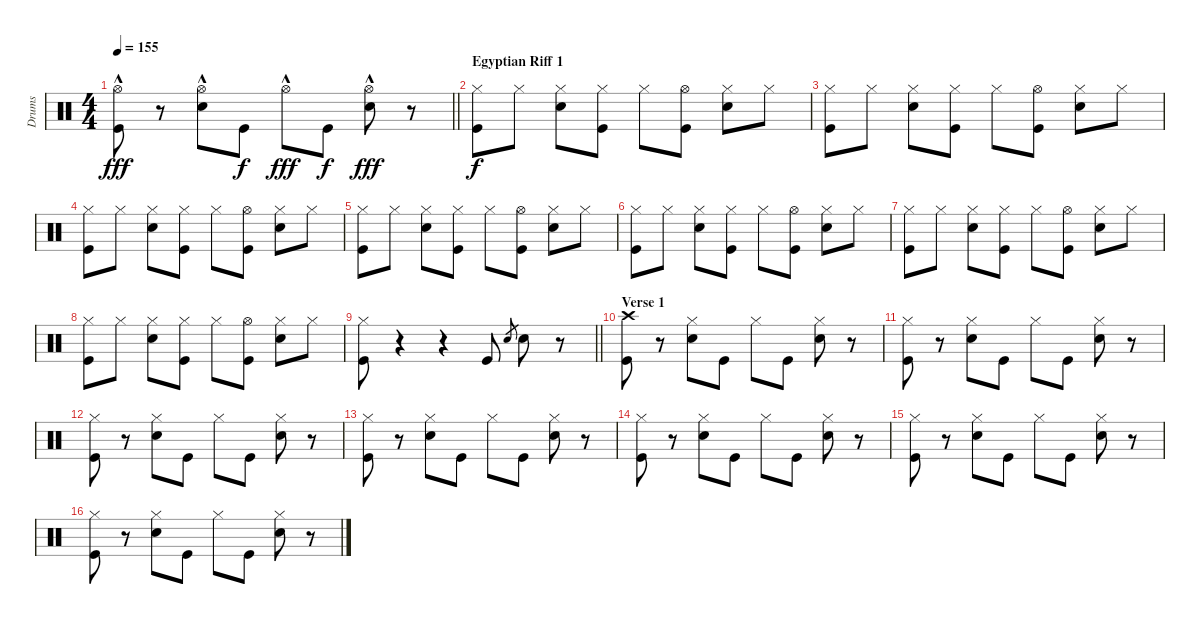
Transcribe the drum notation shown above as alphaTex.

\track ("Drums" "Drums") {instrument percussion}
\staff {score}
\articulation defaults
\ts (4 4)
\tempo 155
\clef neutral
\barLineRight lightlight
\ks c
("Hi-Hat (open)"{hac} "Kick (hit)").8{dy fff} r.8 ("Hi-Hat (open)"{hac} "Snare (hit) 2").8 "Kick (hit)".8{dy f} "Hi-Hat (open)"{hac}.8{dy fff} "Kick (hit)".8{dy f} ("Hi-Hat (open)"{hac} "Snare (hit) 2").8{dy fff} r.8 |
\section ("" "Egyptian Riff 1")
("Hi-Hat (closed)" "Kick (hit)").8{dy f} "Hi-Hat (closed)".8 ("Hi-Hat (closed)" "Snare (hit) 2").8 ("Hi-Hat (closed)" "Kick (hit)").8 "Hi-Hat (closed)".8 ("Hi-Hat (open)" "Kick (hit)").8 ("Hi-Hat (closed)" "Snare (hit) 2").8 "Hi-Hat (closed)".8 |
("Hi-Hat (closed)" "Kick (hit)").8 "Hi-Hat (closed)".8 ("Hi-Hat (closed)" "Snare (hit) 2").8 ("Hi-Hat (closed)" "Kick (hit)").8 "Hi-Hat (closed)".8 ("Hi-Hat (open)" "Kick (hit)").8 ("Hi-Hat (closed)" "Snare (hit) 2").8 "Hi-Hat (closed)".8 |
("Hi-Hat (closed)" "Kick (hit)").8 "Hi-Hat (closed)".8 ("Hi-Hat (closed)" "Snare (hit) 2").8 ("Hi-Hat (closed)" "Kick (hit)").8 "Hi-Hat (closed)".8 ("Hi-Hat (open)" "Kick (hit)").8 ("Hi-Hat (closed)" "Snare (hit) 2").8 "Hi-Hat (closed)".8 |
("Hi-Hat (closed)" "Kick (hit)").8 "Hi-Hat (closed)".8 ("Hi-Hat (closed)" "Snare (hit) 2").8 ("Hi-Hat (closed)" "Kick (hit)").8 "Hi-Hat (closed)".8 ("Hi-Hat (open)" "Kick (hit)").8 ("Hi-Hat (closed)" "Snare (hit) 2").8 "Hi-Hat (closed)".8 |
("Hi-Hat (closed)" "Kick (hit)").8 "Hi-Hat (closed)".8 ("Hi-Hat (closed)" "Snare (hit) 2").8 ("Hi-Hat (closed)" "Kick (hit)").8 "Hi-Hat (closed)".8 ("Hi-Hat (open)" "Kick (hit)").8 ("Hi-Hat (closed)" "Snare (hit) 2").8 "Hi-Hat (closed)".8 |
("Hi-Hat (closed)" "Kick (hit)").8 "Hi-Hat (closed)".8 ("Hi-Hat (closed)" "Snare (hit) 2").8 ("Hi-Hat (closed)" "Kick (hit)").8 "Hi-Hat (closed)".8 ("Hi-Hat (open)" "Kick (hit)").8 ("Hi-Hat (closed)" "Snare (hit) 2").8 "Hi-Hat (closed)".8 |
("Hi-Hat (closed)" "Kick (hit)").8 "Hi-Hat (closed)".8 ("Hi-Hat (closed)" "Snare (hit) 2").8 ("Hi-Hat (closed)" "Kick (hit)").8 "Hi-Hat (closed)".8 ("Hi-Hat (open)" "Kick (hit)").8 ("Hi-Hat (closed)" "Snare (hit) 2").8 "Hi-Hat (closed)".8 |
\barLineRight lightlight
("Hi-Hat (closed)" "Kick (hit)").8 r.4 r.4 "Kick (hit)".8 "Snare (hit) 2".8{gr} "Snare (hit) 2".8 r.8 |
\section ("" "Verse 1")
("Crash high (hit)" "Kick (hit)").8 r.8 ("Hi-Hat (closed)" "Snare (hit) 2").8 "Kick (hit)".8 "Hi-Hat (closed)".8 "Kick (hit)".8 ("Hi-Hat (closed)" "Snare (hit) 2").8 r.8 |
("Hi-Hat (closed)" "Kick (hit)").8 r.8 ("Hi-Hat (closed)" "Snare (hit) 2").8 "Kick (hit)".8 "Hi-Hat (closed)".8 "Kick (hit)".8 ("Hi-Hat (closed)" "Snare (hit) 2").8 r.8 |
("Hi-Hat (closed)" "Kick (hit)").8 r.8 ("Hi-Hat (closed)" "Snare (hit) 2").8 "Kick (hit)".8 "Hi-Hat (closed)".8 "Kick (hit)".8 ("Hi-Hat (closed)" "Snare (hit) 2").8 r.8 |
("Hi-Hat (closed)" "Kick (hit)").8 r.8 ("Hi-Hat (closed)" "Snare (hit) 2").8 "Kick (hit)".8 "Hi-Hat (closed)".8 "Kick (hit)".8 ("Hi-Hat (closed)" "Snare (hit) 2").8 r.8 |
("Hi-Hat (closed)" "Kick (hit)").8 r.8 ("Hi-Hat (closed)" "Snare (hit) 2").8 "Kick (hit)".8 "Hi-Hat (closed)".8 "Kick (hit)".8 ("Hi-Hat (closed)" "Snare (hit) 2").8 r.8 |
("Hi-Hat (closed)" "Kick (hit)").8 r.8 ("Hi-Hat (closed)" "Snare (hit) 2").8 "Kick (hit)".8 "Hi-Hat (closed)".8 "Kick (hit)".8 ("Hi-Hat (closed)" "Snare (hit) 2").8 r.8 |
("Hi-Hat (closed)" "Kick (hit)").8 r.8 ("Hi-Hat (closed)" "Snare (hit) 2").8 "Kick (hit)".8 "Hi-Hat (closed)".8 "Kick (hit)".8 ("Hi-Hat (closed)" "Snare (hit) 2").8 r.8
